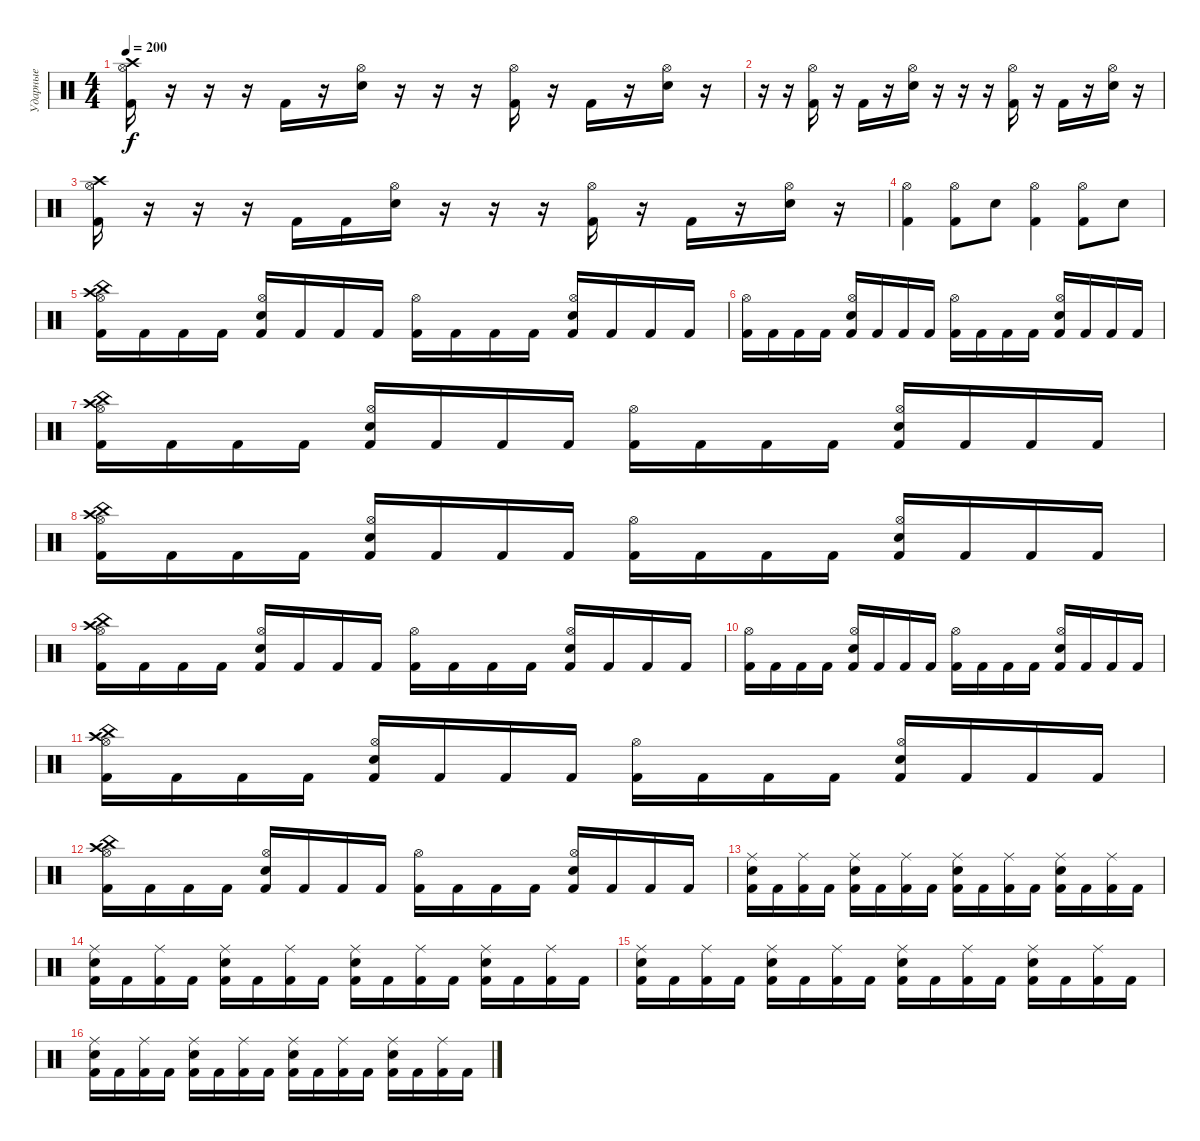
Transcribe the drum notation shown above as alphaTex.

\track ("Ударные" "Ударные") {instrument percussion}
\staff {score}
\articulation defaults
\ts (4 4)
\tempo 200
\clef neutral
\ks c
("Kick (hit) 2" "Hi-Hat (open)" "Crash high (hit)").16{dy f} r.16 r.16 r.16 "Kick (hit) 2".16 r.16 ("Electric Snare (hit)" "Hi-Hat (open)").16 r.16 r.16 r.16 ("Kick (hit) 2" "Hi-Hat (open)").16 r.16 "Kick (hit) 2".16 r.16 ("Electric Snare (hit)" "Hi-Hat (open)").16 r.16 |
r.16 r.16 ("Kick (hit) 2" "Hi-Hat (open)").16 r.16 "Kick (hit) 2".16 r.16 ("Electric Snare (hit)" "Hi-Hat (open)").16 r.16 r.16 r.16 ("Kick (hit) 2" "Hi-Hat (open)").16 r.16 "Kick (hit) 2".16 r.16 ("Electric Snare (hit)" "Hi-Hat (open)").16 r.16 |
("Kick (hit) 2" "Hi-Hat (open)" "Crash high (hit)").16 r.16 r.16 r.16 "Kick (hit) 2".16 "Kick (hit) 2".16 ("Electric Snare (hit)" "Hi-Hat (open)").16 r.16 r.16 r.16 ("Kick (hit) 2" "Hi-Hat (open)").16 r.16 "Kick (hit) 2".16 r.16 ("Electric Snare (hit)" "Hi-Hat (open)").16 r.16 |
("Kick (hit) 2" "Hi-Hat (open)").4 ("Kick (hit) 2" "Hi-Hat (open)").8 "Electric Snare (hit)".8 ("Kick (hit) 2" "Hi-Hat (open)").4 ("Kick (hit) 2" "Hi-Hat (open)").8 "Electric Snare (hit)".8 |
("Kick (hit) 2" "Hi-Hat (open)" "Crash high (hit)" "China (hit)").16 "Kick (hit) 2".16 "Kick (hit) 2".16 "Kick (hit) 2".16 ("Kick (hit) 2" "Electric Snare (hit)" "Hi-Hat (open)").16 "Kick (hit) 2".16 "Kick (hit) 2".16 "Kick (hit) 2".16 ("Kick (hit) 2" "Hi-Hat (open)").16 "Kick (hit) 2".16 "Kick (hit) 2".16 "Kick (hit) 2".16 ("Kick (hit) 2" "Electric Snare (hit)" "Hi-Hat (open)").16 "Kick (hit) 2".16 "Kick (hit) 2".16 "Kick (hit) 2".16 |
("Kick (hit) 2" "Hi-Hat (open)").16 "Kick (hit) 2".16 "Kick (hit) 2".16 "Kick (hit) 2".16 ("Kick (hit) 2" "Electric Snare (hit)" "Hi-Hat (open)").16 "Kick (hit) 2".16 "Kick (hit) 2".16 "Kick (hit) 2".16 ("Kick (hit) 2" "Hi-Hat (open)").16 "Kick (hit) 2".16 "Kick (hit) 2".16 "Kick (hit) 2".16 ("Kick (hit) 2" "Electric Snare (hit)" "Hi-Hat (open)").16 "Kick (hit) 2".16 "Kick (hit) 2".16 "Kick (hit) 2".16 |
("Kick (hit) 2" "Hi-Hat (open)" "China (hit)" "Crash high (hit)").16 "Kick (hit) 2".16 "Kick (hit) 2".16 "Kick (hit) 2".16 ("Kick (hit) 2" "Electric Snare (hit)" "Hi-Hat (open)").16 "Kick (hit) 2".16 "Kick (hit) 2".16 "Kick (hit) 2".16 ("Kick (hit) 2" "Hi-Hat (open)").16 "Kick (hit) 2".16 "Kick (hit) 2".16 "Kick (hit) 2".16 ("Kick (hit) 2" "Electric Snare (hit)" "Hi-Hat (open)").16 "Kick (hit) 2".16 "Kick (hit) 2".16 "Kick (hit) 2".16 |
("Kick (hit) 2" "Hi-Hat (open)" "Crash high (hit)" "China (hit)").16 "Kick (hit) 2".16 "Kick (hit) 2".16 "Kick (hit) 2".16 ("Kick (hit) 2" "Electric Snare (hit)" "Hi-Hat (open)").16 "Kick (hit) 2".16 "Kick (hit) 2".16 "Kick (hit) 2".16 ("Kick (hit) 2" "Hi-Hat (open)").16 "Kick (hit) 2".16 "Kick (hit) 2".16 "Kick (hit) 2".16 ("Kick (hit) 2" "Electric Snare (hit)" "Hi-Hat (open)").16 "Kick (hit) 2".16 "Kick (hit) 2".16 "Kick (hit) 2".16 |
("Kick (hit) 2" "Hi-Hat (open)" "China (hit)" "Crash high (hit)").16 "Kick (hit) 2".16 "Kick (hit) 2".16 "Kick (hit) 2".16 ("Kick (hit) 2" "Electric Snare (hit)" "Hi-Hat (open)").16 "Kick (hit) 2".16 "Kick (hit) 2".16 "Kick (hit) 2".16 ("Kick (hit) 2" "Hi-Hat (open)").16 "Kick (hit) 2".16 "Kick (hit) 2".16 "Kick (hit) 2".16 ("Kick (hit) 2" "Electric Snare (hit)" "Hi-Hat (open)").16 "Kick (hit) 2".16 "Kick (hit) 2".16 "Kick (hit) 2".16 |
("Kick (hit) 2" "Hi-Hat (open)").16 "Kick (hit) 2".16 "Kick (hit) 2".16 "Kick (hit) 2".16 ("Kick (hit) 2" "Electric Snare (hit)" "Hi-Hat (open)").16 "Kick (hit) 2".16 "Kick (hit) 2".16 "Kick (hit) 2".16 ("Kick (hit) 2" "Hi-Hat (open)").16 "Kick (hit) 2".16 "Kick (hit) 2".16 "Kick (hit) 2".16 ("Kick (hit) 2" "Electric Snare (hit)" "Hi-Hat (open)").16 "Kick (hit) 2".16 "Kick (hit) 2".16 "Kick (hit) 2".16 |
("Kick (hit) 2" "Hi-Hat (open)" "China (hit)" "Crash high (hit)").16 "Kick (hit) 2".16 "Kick (hit) 2".16 "Kick (hit) 2".16 ("Kick (hit) 2" "Electric Snare (hit)" "Hi-Hat (open)").16 "Kick (hit) 2".16 "Kick (hit) 2".16 "Kick (hit) 2".16 ("Kick (hit) 2" "Hi-Hat (open)").16 "Kick (hit) 2".16 "Kick (hit) 2".16 "Kick (hit) 2".16 ("Kick (hit) 2" "Electric Snare (hit)" "Hi-Hat (open)").16 "Kick (hit) 2".16 "Kick (hit) 2".16 "Kick (hit) 2".16 |
("Kick (hit) 2" "Hi-Hat (open)" "China (hit)" "Crash high (hit)").16 "Kick (hit) 2".16 "Kick (hit) 2".16 "Kick (hit) 2".16 ("Kick (hit) 2" "Electric Snare (hit)" "Hi-Hat (open)").16 "Kick (hit) 2".16 "Kick (hit) 2".16 "Kick (hit) 2".16 ("Kick (hit) 2" "Hi-Hat (open)").16 "Kick (hit) 2".16 "Kick (hit) 2".16 "Kick (hit) 2".16 ("Kick (hit) 2" "Electric Snare (hit)" "Hi-Hat (open)").16 "Kick (hit) 2".16 "Kick (hit) 2".16 "Kick (hit) 2".16 |
("Kick (hit) 2" "Electric Snare (hit)" "Ride (middle)").16 "Kick (hit) 2".16 ("Kick (hit) 2" "Ride (middle)").16 "Kick (hit) 2".16 ("Kick (hit) 2" "Electric Snare (hit)" "Ride (middle)").16 "Kick (hit) 2".16 ("Kick (hit) 2" "Ride (middle)").16 "Kick (hit) 2".16 ("Kick (hit) 2" "Electric Snare (hit)" "Ride (middle)").16 "Kick (hit) 2".16 ("Kick (hit) 2" "Ride (middle)").16 "Kick (hit) 2".16 ("Kick (hit) 2" "Electric Snare (hit)" "Ride (middle)").16 "Kick (hit) 2".16 ("Kick (hit) 2" "Ride (middle)").16 "Kick (hit) 2".16 |
("Kick (hit) 2" "Electric Snare (hit)" "Ride (middle)").16 "Kick (hit) 2".16 ("Kick (hit) 2" "Ride (middle)").16 "Kick (hit) 2".16 ("Kick (hit) 2" "Electric Snare (hit)" "Ride (middle)").16 "Kick (hit) 2".16 ("Kick (hit) 2" "Ride (middle)").16 "Kick (hit) 2".16 ("Kick (hit) 2" "Electric Snare (hit)" "Ride (middle)").16 "Kick (hit) 2".16 ("Kick (hit) 2" "Ride (middle)").16 "Kick (hit) 2".16 ("Kick (hit) 2" "Electric Snare (hit)" "Ride (middle)").16 "Kick (hit) 2".16 ("Kick (hit) 2" "Ride (middle)").16 "Kick (hit) 2".16 |
("Kick (hit) 2" "Electric Snare (hit)" "Ride (middle)").16 "Kick (hit) 2".16 ("Kick (hit) 2" "Ride (middle)").16 "Kick (hit) 2".16 ("Kick (hit) 2" "Electric Snare (hit)" "Ride (middle)").16 "Kick (hit) 2".16 ("Kick (hit) 2" "Ride (middle)").16 "Kick (hit) 2".16 ("Kick (hit) 2" "Electric Snare (hit)" "Ride (middle)").16 "Kick (hit) 2".16 ("Kick (hit) 2" "Ride (middle)").16 "Kick (hit) 2".16 ("Kick (hit) 2" "Electric Snare (hit)" "Ride (middle)").16 "Kick (hit) 2".16 ("Kick (hit) 2" "Ride (middle)").16 "Kick (hit) 2".16 |
("Kick (hit) 2" "Electric Snare (hit)" "Ride (middle)").16 "Kick (hit) 2".16 ("Kick (hit) 2" "Ride (middle)").16 "Kick (hit) 2".16 ("Kick (hit) 2" "Electric Snare (hit)" "Ride (middle)").16 "Kick (hit) 2".16 ("Kick (hit) 2" "Ride (middle)").16 "Kick (hit) 2".16 ("Kick (hit) 2" "Electric Snare (hit)" "Ride (middle)").16 "Kick (hit) 2".16 ("Kick (hit) 2" "Ride (middle)").16 "Kick (hit) 2".16 ("Kick (hit) 2" "Electric Snare (hit)" "Ride (middle)").16 "Kick (hit) 2".16 ("Kick (hit) 2" "Ride (middle)").16 "Kick (hit) 2".16
